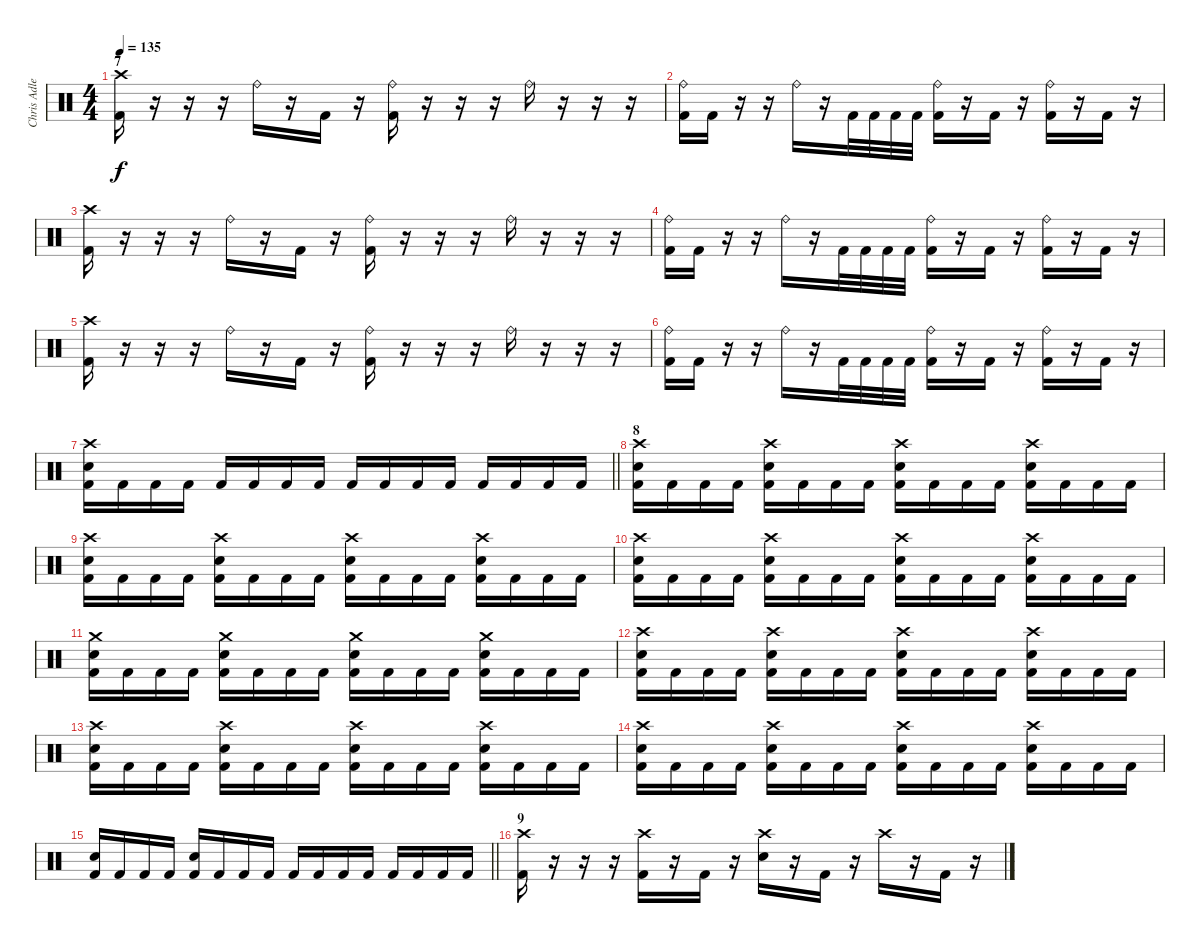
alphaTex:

\track ("Chris Adler" "Chris Adle") {instrument percussion}
\staff {score}
\articulation defaults
\ts (4 4)
\section ("" "7")
\tempo 135
\clef neutral
\ks c
("Crash high (hit)" "Kick (hit) 2").16{dy f} r.16 r.16 r.16 "Ride (bell)".16 r.16 "Kick (hit) 2".16 r.16 ("Ride (bell)" "Kick (hit) 2").16 r.16 r.16 r.16 "Ride (bell)".16 r.16 r.16 r.16 |
("Ride (bell)" "Kick (hit) 2").16 "Kick (hit) 2".16 r.16 r.16 "Ride (bell)".16 r.16 "Kick (hit) 2".32 "Kick (hit) 2".32 "Kick (hit) 2".32 "Kick (hit) 2".32 ("Ride (bell)" "Kick (hit) 2").16 r.16 "Kick (hit) 2".16 r.16 ("Ride (bell)" "Kick (hit) 2").16 r.16 "Kick (hit) 2".16 r.16 |
("Crash high (hit)" "Kick (hit) 2").16 r.16 r.16 r.16 "Ride (bell)".16 r.16 "Kick (hit) 2".16 r.16 ("Ride (bell)" "Kick (hit) 2").16 r.16 r.16 r.16 "Ride (bell)".16 r.16 r.16 r.16 |
("Ride (bell)" "Kick (hit) 2").16 "Kick (hit) 2".16 r.16 r.16 "Ride (bell)".16 r.16 "Kick (hit) 2".32 "Kick (hit) 2".32 "Kick (hit) 2".32 "Kick (hit) 2".32 ("Ride (bell)" "Kick (hit) 2").16 r.16 "Kick (hit) 2".16 r.16 ("Ride (bell)" "Kick (hit) 2").16 r.16 "Kick (hit) 2".16 r.16 |
("Crash high (hit)" "Kick (hit) 2").16 r.16 r.16 r.16 "Ride (bell)".16 r.16 "Kick (hit) 2".16 r.16 ("Ride (bell)" "Kick (hit) 2").16 r.16 r.16 r.16 "Ride (bell)".16 r.16 r.16 r.16 |
("Ride (bell)" "Kick (hit) 2").16 "Kick (hit) 2".16 r.16 r.16 "Ride (bell)".16 r.16 "Kick (hit) 2".32 "Kick (hit) 2".32 "Kick (hit) 2".32 "Kick (hit) 2".32 ("Ride (bell)" "Kick (hit) 2").16 r.16 "Kick (hit) 2".16 r.16 ("Ride (bell)" "Kick (hit) 2").16 r.16 "Kick (hit) 2".16 r.16 |
\barLineRight lightlight
("Crash high (hit)" "Electric Snare (hit)" "Kick (hit) 2").16 "Kick (hit) 2".16 "Kick (hit) 2".16 "Kick (hit) 2".16 "Kick (hit) 2".16 "Kick (hit) 2".16 "Kick (hit) 2".16 "Kick (hit) 2".16 "Kick (hit) 2".16 "Kick (hit) 2".16 "Kick (hit) 2".16 "Kick (hit) 2".16 "Kick (hit) 2".16 "Kick (hit) 2".16 "Kick (hit) 2".16 "Kick (hit) 2".16 |
\section ("" "8")
("Crash high (hit)" "Electric Snare (hit)" "Kick (hit) 2").16 "Kick (hit) 2".16 "Kick (hit) 2".16 "Kick (hit) 2".16 ("Crash high (hit)" "Electric Snare (hit)" "Kick (hit) 2").16 "Kick (hit) 2".16 "Kick (hit) 2".16 "Kick (hit) 2".16 ("Crash high (hit)" "Electric Snare (hit)" "Kick (hit) 2").16 "Kick (hit) 2".16 "Kick (hit) 2".16 "Kick (hit) 2".16 ("Crash high (hit)" "Electric Snare (hit)" "Kick (hit) 2").16 "Kick (hit) 2".16 "Kick (hit) 2".16 "Kick (hit) 2".16 |
("Crash high (hit)" "Electric Snare (hit)" "Kick (hit) 2").16 "Kick (hit) 2".16 "Kick (hit) 2".16 "Kick (hit) 2".16 ("Crash high (hit)" "Electric Snare (hit)" "Kick (hit) 2").16 "Kick (hit) 2".16 "Kick (hit) 2".16 "Kick (hit) 2".16 ("Crash high (hit)" "Electric Snare (hit)" "Kick (hit) 2").16 "Kick (hit) 2".16 "Kick (hit) 2".16 "Kick (hit) 2".16 ("Crash high (hit)" "Electric Snare (hit)" "Kick (hit) 2").16 "Kick (hit) 2".16 "Kick (hit) 2".16 "Kick (hit) 2".16 |
("Crash high (hit)" "Electric Snare (hit)" "Kick (hit) 2").16 "Kick (hit) 2".16 "Kick (hit) 2".16 "Kick (hit) 2".16 ("Crash high (hit)" "Electric Snare (hit)" "Kick (hit) 2").16 "Kick (hit) 2".16 "Kick (hit) 2".16 "Kick (hit) 2".16 ("Crash high (hit)" "Electric Snare (hit)" "Kick (hit) 2").16 "Kick (hit) 2".16 "Kick (hit) 2".16 "Kick (hit) 2".16 ("Crash high (hit)" "Electric Snare (hit)" "Kick (hit) 2").16 "Kick (hit) 2".16 "Kick (hit) 2".16 "Kick (hit) 2".16 |
("Crash medium (hit)" "Electric Snare (hit)" "Kick (hit) 2").16 "Kick (hit) 2".16 "Kick (hit) 2".16 "Kick (hit) 2".16 ("Crash medium (hit)" "Electric Snare (hit)" "Kick (hit) 2").16 "Kick (hit) 2".16 "Kick (hit) 2".16 "Kick (hit) 2".16 ("Crash medium (hit)" "Electric Snare (hit)" "Kick (hit) 2").16 "Kick (hit) 2".16 "Kick (hit) 2".16 "Kick (hit) 2".16 ("Crash medium (hit)" "Electric Snare (hit)" "Kick (hit) 2").16 "Kick (hit) 2".16 "Kick (hit) 2".16 "Kick (hit) 2".16 |
("Crash high (hit)" "Electric Snare (hit)" "Kick (hit) 2").16 "Kick (hit) 2".16 "Kick (hit) 2".16 "Kick (hit) 2".16 ("Crash high (hit)" "Electric Snare (hit)" "Kick (hit) 2").16 "Kick (hit) 2".16 "Kick (hit) 2".16 "Kick (hit) 2".16 ("Crash high (hit)" "Electric Snare (hit)" "Kick (hit) 2").16 "Kick (hit) 2".16 "Kick (hit) 2".16 "Kick (hit) 2".16 ("Crash high (hit)" "Electric Snare (hit)" "Kick (hit) 2").16 "Kick (hit) 2".16 "Kick (hit) 2".16 "Kick (hit) 2".16 |
("Crash high (hit)" "Electric Snare (hit)" "Kick (hit) 2").16 "Kick (hit) 2".16 "Kick (hit) 2".16 "Kick (hit) 2".16 ("Crash high (hit)" "Electric Snare (hit)" "Kick (hit) 2").16 "Kick (hit) 2".16 "Kick (hit) 2".16 "Kick (hit) 2".16 ("Crash high (hit)" "Electric Snare (hit)" "Kick (hit) 2").16 "Kick (hit) 2".16 "Kick (hit) 2".16 "Kick (hit) 2".16 ("Crash high (hit)" "Electric Snare (hit)" "Kick (hit) 2").16 "Kick (hit) 2".16 "Kick (hit) 2".16 "Kick (hit) 2".16 |
("Crash high (hit)" "Electric Snare (hit)" "Kick (hit) 2").16 "Kick (hit) 2".16 "Kick (hit) 2".16 "Kick (hit) 2".16 ("Crash high (hit)" "Electric Snare (hit)" "Kick (hit) 2").16 "Kick (hit) 2".16 "Kick (hit) 2".16 "Kick (hit) 2".16 ("Crash high (hit)" "Electric Snare (hit)" "Kick (hit) 2").16 "Kick (hit) 2".16 "Kick (hit) 2".16 "Kick (hit) 2".16 ("Crash high (hit)" "Electric Snare (hit)" "Kick (hit) 2").16 "Kick (hit) 2".16 "Kick (hit) 2".16 "Kick (hit) 2".16 |
\barLineRight lightlight
("Electric Snare (hit)" "Kick (hit) 2").16 "Kick (hit) 2".16 "Kick (hit) 2".16 "Kick (hit) 2".16 ("Electric Snare (hit)" "Kick (hit) 2").16 "Kick (hit) 2".16 "Kick (hit) 2".16 "Kick (hit) 2".16 "Kick (hit) 2".16 "Kick (hit) 2".16 "Kick (hit) 2".16 "Kick (hit) 2".16 "Kick (hit) 2".16 "Kick (hit) 2".16 "Kick (hit) 2".16 "Kick (hit) 2".16 |
\section ("" "9")
("Crash high (hit)" "Kick (hit) 2").16 r.16 r.16 r.16 ("Crash high (hit)" "Kick (hit) 2").16 r.16 "Kick (hit) 2".16 r.16 ("Crash high (hit)" "Electric Snare (hit)").16 r.16 "Kick (hit) 2".16 r.16 "Crash high (hit)".16 r.16 "Kick (hit) 2".16 r.16
